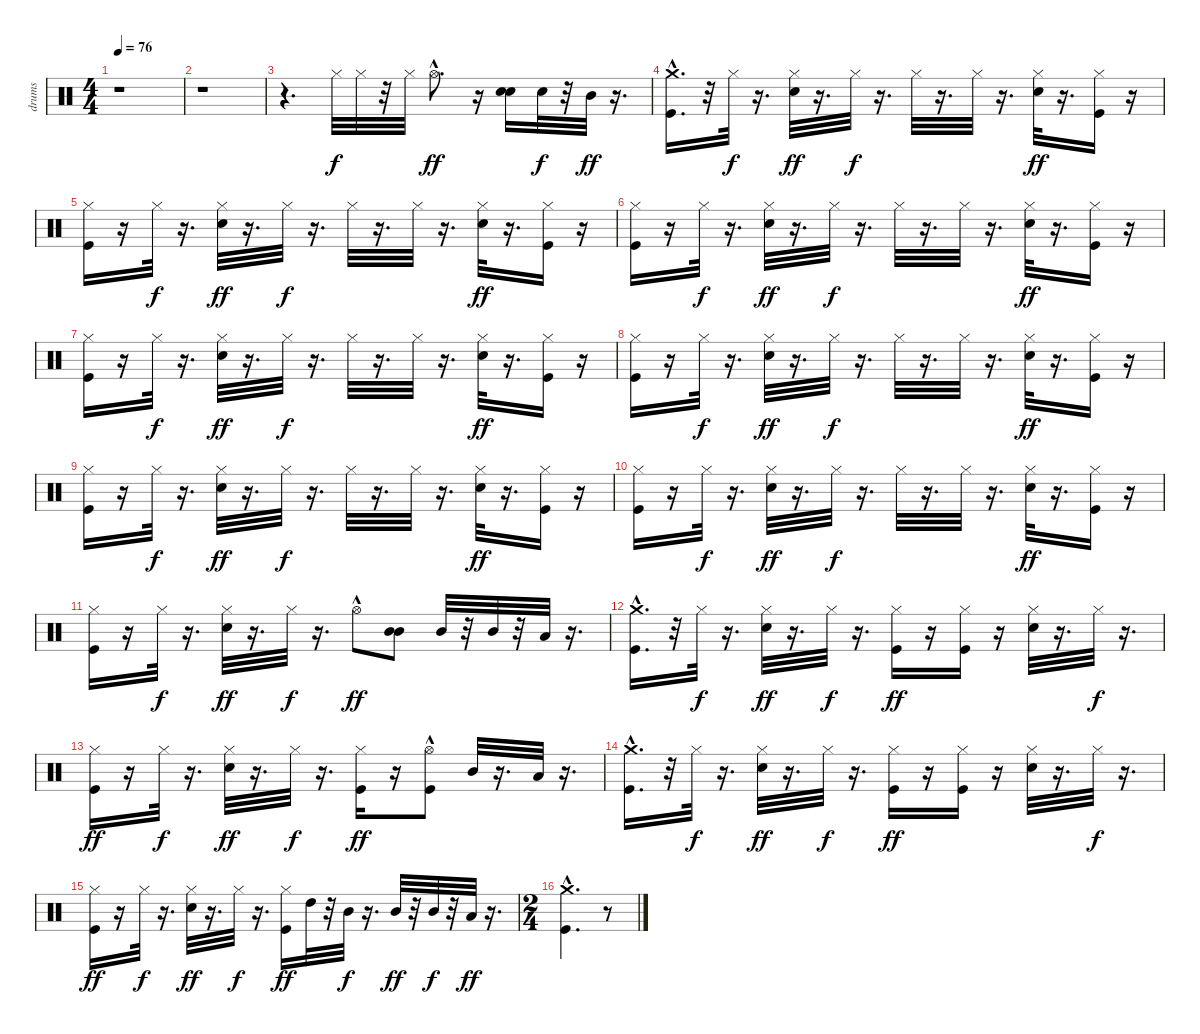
\track ("drums" "drums") {instrument percussion}
\staff {score}
\articulation defaults
\ts (4 4)
\tempo 76
\clef neutral
\ks c
r.1{dy f} |
r.1 |
r.4{d} "Hi-Hat (closed)".32 "Hi-Hat (closed)".32 r.32 "Hi-Hat (closed)".32 "Hi-Hat (open)"{hac}.8{d dy ff} r.16 ("Electric Snare (hit)" "Electric Snare (hit)").16 "Electric Snare (hit)".32{dy f} r.32 "Mid Tom (hit)".32{dy ff} r.16{d} |
("Kick (hit)" "Crash medium (hit)"{hac}).16{d} r.32 "Hi-Hat (closed)".32{dy f} r.16{d} ("Hi-Hat (closed)" "Electric Snare (hit)").32{dy ff} r.16{d} "Hi-Hat (closed)".32{dy f} r.16{d} "Hi-Hat (closed)".32 r.16{d} "Hi-Hat (closed)".32 r.16{d} ("Hi-Hat (closed)" "Electric Snare (hit)").32{dy ff} r.16{d} ("Hi-Hat (closed)" "Kick (hit)").16 r.16 |
("Kick (hit)" "Hi-Hat (closed)").16 r.16 "Hi-Hat (closed)".32{dy f} r.16{d} ("Hi-Hat (closed)" "Electric Snare (hit)").32{dy ff} r.16{d} "Hi-Hat (closed)".32{dy f} r.16{d} "Hi-Hat (closed)".32 r.16{d} "Hi-Hat (closed)".32 r.16{d} ("Hi-Hat (closed)" "Electric Snare (hit)").32{dy ff} r.16{d} ("Hi-Hat (closed)" "Kick (hit)").16 r.16 |
("Kick (hit)" "Hi-Hat (closed)").16 r.16 "Hi-Hat (closed)".32{dy f} r.16{d} ("Hi-Hat (closed)" "Electric Snare (hit)").32{dy ff} r.16{d} "Hi-Hat (closed)".32{dy f} r.16{d} "Hi-Hat (closed)".32 r.16{d} "Hi-Hat (closed)".32 r.16{d} ("Hi-Hat (closed)" "Electric Snare (hit)").32{dy ff} r.16{d} ("Hi-Hat (closed)" "Kick (hit)").16 r.16 |
("Kick (hit)" "Hi-Hat (closed)").16 r.16 "Hi-Hat (closed)".32{dy f} r.16{d} ("Hi-Hat (closed)" "Electric Snare (hit)").32{dy ff} r.16{d} "Hi-Hat (closed)".32{dy f} r.16{d} "Hi-Hat (closed)".32 r.16{d} "Hi-Hat (closed)".32 r.16{d} ("Hi-Hat (closed)" "Electric Snare (hit)").32{dy ff} r.16{d} ("Hi-Hat (closed)" "Kick (hit)").16 r.16 |
("Kick (hit)" "Hi-Hat (closed)").16 r.16 "Hi-Hat (closed)".32{dy f} r.16{d} ("Hi-Hat (closed)" "Electric Snare (hit)").32{dy ff} r.16{d} "Hi-Hat (closed)".32{dy f} r.16{d} "Hi-Hat (closed)".32 r.16{d} "Hi-Hat (closed)".32 r.16{d} ("Hi-Hat (closed)" "Electric Snare (hit)").32{dy ff} r.16{d} ("Hi-Hat (closed)" "Kick (hit)").16 r.16 |
("Kick (hit)" "Hi-Hat (closed)").16 r.16 "Hi-Hat (closed)".32{dy f} r.16{d} ("Hi-Hat (closed)" "Electric Snare (hit)").32{dy ff} r.16{d} "Hi-Hat (closed)".32{dy f} r.16{d} "Hi-Hat (closed)".32 r.16{d} "Hi-Hat (closed)".32 r.16{d} ("Hi-Hat (closed)" "Electric Snare (hit)").32{dy ff} r.16{d} ("Hi-Hat (closed)" "Kick (hit)").16 r.16 |
("Kick (hit)" "Hi-Hat (closed)").16 r.16 "Hi-Hat (closed)".32{dy f} r.16{d} ("Hi-Hat (closed)" "Electric Snare (hit)").32{dy ff} r.16{d} "Hi-Hat (closed)".32{dy f} r.16{d} "Hi-Hat (closed)".32 r.16{d} "Hi-Hat (closed)".32 r.16{d} ("Hi-Hat (closed)" "Electric Snare (hit)").32{dy ff} r.16{d} ("Hi-Hat (closed)" "Kick (hit)").16 r.16 |
("Kick (hit)" "Hi-Hat (closed)").16 r.16 "Hi-Hat (closed)".32{dy f} r.16{d} ("Hi-Hat (closed)" "Electric Snare (hit)").32{dy ff} r.16{d} "Hi-Hat (closed)".32{dy f} r.16{d} "Hi-Hat (open)"{hac}.8{dy ff} ("Mid Tom (hit)" "Mid Tom (hit)").8 "Mid Tom (hit)".32 r.32 "Mid Tom (hit)".32 r.32 "Low Tom (hit)".32 r.16{d} |
("Kick (hit)" "Crash medium (hit)"{hac}).16{d} r.32 "Hi-Hat (closed)".32{dy f} r.16{d} ("Hi-Hat (closed)" "Electric Snare (hit)").32{dy ff} r.16{d} "Hi-Hat (closed)".32{dy f} r.16{d} ("Hi-Hat (closed)" "Kick (hit)").16{dy ff} r.16 ("Hi-Hat (closed)" "Kick (hit)").16 r.16 ("Hi-Hat (closed)" "Electric Snare (hit)").32 r.16{d} "Hi-Hat (closed)".32{dy f} r.16{d} |
("Kick (hit)" "Hi-Hat (closed)").16{dy ff} r.16 "Hi-Hat (closed)".32{dy f} r.16{d} ("Hi-Hat (closed)" "Electric Snare (hit)").32{dy ff} r.16{d} "Hi-Hat (closed)".32{dy f} r.16{d} ("Hi-Hat (closed)" "Kick (hit)").16{dy ff} r.16 ("Kick (hit)" "Hi-Hat (open)"{hac}).8 "Mid Tom (hit)".32 r.16{d} "Low Tom (hit)".32 r.16{d} |
("Kick (hit)" "Crash medium (hit)"{hac}).16{d} r.32 "Hi-Hat (closed)".32{dy f} r.16{d} ("Hi-Hat (closed)" "Electric Snare (hit)").32{dy ff} r.16{d} "Hi-Hat (closed)".32{dy f} r.16{d} ("Hi-Hat (closed)" "Kick (hit)").16{dy ff} r.16 ("Hi-Hat (closed)" "Kick (hit)").16 r.16 ("Hi-Hat (closed)" "Electric Snare (hit)").32 r.16{d} "Hi-Hat (closed)".32{dy f} r.16{d} |
("Kick (hit)" "Hi-Hat (closed)").16{dy ff} r.16 "Hi-Hat (closed)".32{dy f} r.16{d} ("Hi-Hat (closed)" "Electric Snare (hit)").32{dy ff} r.16{d} "Hi-Hat (closed)".32{dy f} r.16{d} ("Hi-Hat (closed)" "Kick (hit)").16{dy ff} "High Tom (hit)".32 r.32 "Mid Tom (hit)".32{dy f} r.16{d} "Mid Tom (hit)".32{dy ff} r.32 "Mid Tom (hit)".32{dy f} r.32 "Low Tom (hit)".32{dy ff} r.16{d} |
\ts (2 4)
("Kick (hit)" "Crash medium (hit)"{hac}).4{d} r.8
